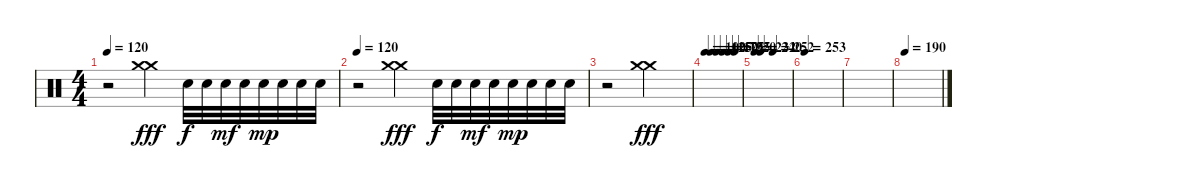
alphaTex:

\track "" {instrument percussion}
\staff {score}
\articulation defaults
\ts (4 4)
\tempo 120
\clef neutral
\ks c
r.2{dy mp} ("Crash medium (hit)" "Crash medium (hit)").4{dy fff} "Snare (hit) 2".32{dy f} "Snare (hit) 2".32 "Snare (hit) 2".32{dy mf} "Snare (hit) 2".32 "Snare (hit) 2".32{dy mp} "Snare (hit) 2".32 "Snare (hit) 2".32 "Snare (hit) 2".32 |
\tempo 120
r.2 ("Crash medium (hit)" "Crash medium (hit)").4{dy fff} "Snare (hit) 2".32{dy f} "Snare (hit) 2".32 "Snare (hit) 2".32{dy mf} "Snare (hit) 2".32 "Snare (hit) 2".32{dy mp} "Snare (hit) 2".32 "Snare (hit) 2".32 "Snare (hit) 2".32 |
r.2 ("Crash medium (hit)" "Crash medium (hit)").2{dy fff} |
\tempo 100
\tempo (125 0.16666666666666666)
\tempo (150 0.3333333333333333)
\tempo (175 0.5)
\tempo (195 0.6666666666666666)
\tempo (220 0.8333333333333334)
|
\tempo 232
\tempo (240 0.16666666666666666)
\tempo (252 0.5)
|
\tempo 253
|
|
\tempo 190
